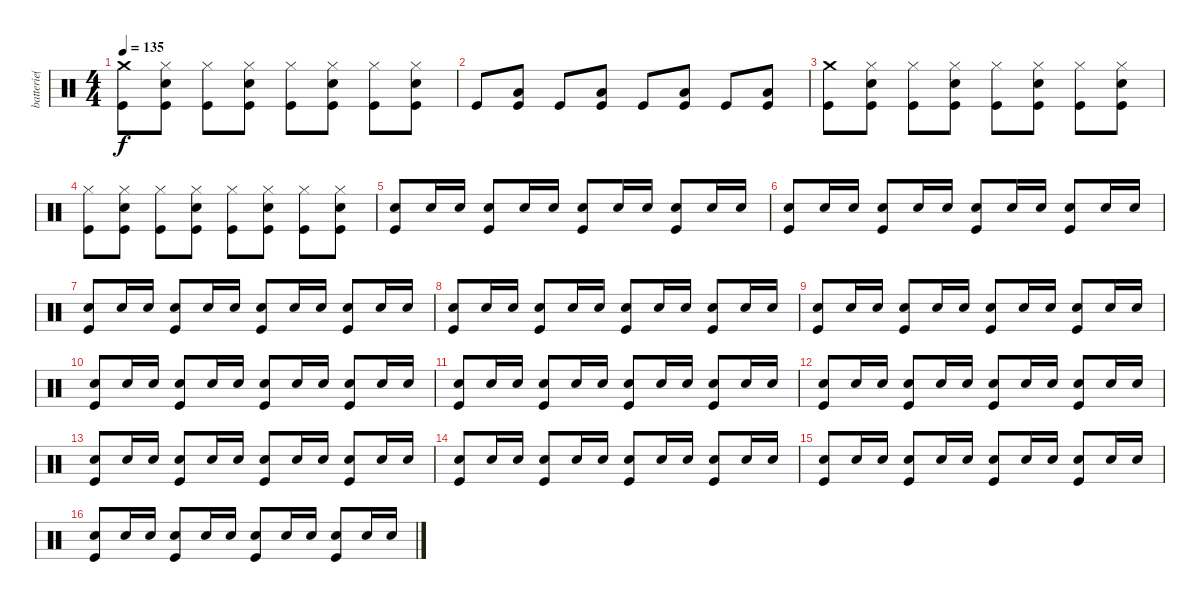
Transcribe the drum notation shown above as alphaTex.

\track ("batterie( Shane )" "batterie( ") {instrument percussion}
\staff {score}
\articulation defaults
\ts (4 4)
\tempo 135
\clef neutral
\ks c
("Crash medium (hit)" "Kick (hit)").8{dy f} ("Hi-Hat (closed)" "Snare (hit) 2" "Kick (hit)").8 ("Hi-Hat (closed)" "Kick (hit)").8 ("Hi-Hat (closed)" "Snare (hit) 2" "Kick (hit)").8 ("Hi-Hat (closed)" "Kick (hit)").8 ("Hi-Hat (closed)" "Snare (hit) 2" "Kick (hit)").8 ("Hi-Hat (closed)" "Kick (hit)").8 ("Hi-Hat (closed)" "Snare (hit) 2" "Kick (hit)").8 |
"Kick (hit)".8 ("Low Floor Tom (hit)" "Kick (hit)").8 "Kick (hit)".8 ("Low Floor Tom (hit)" "Kick (hit)").8 "Kick (hit)".8 ("Low Floor Tom (hit)" "Kick (hit)").8 "Kick (hit)".8 ("Low Floor Tom (hit)" "Kick (hit)").8 |
("Crash medium (hit)" "Kick (hit)").8 ("Hi-Hat (closed)" "Snare (hit) 2" "Kick (hit)").8 ("Hi-Hat (closed)" "Kick (hit)").8 ("Hi-Hat (closed)" "Snare (hit) 2" "Kick (hit)").8 ("Hi-Hat (closed)" "Kick (hit)").8 ("Hi-Hat (closed)" "Snare (hit) 2" "Kick (hit)").8 ("Hi-Hat (closed)" "Kick (hit)").8 ("Hi-Hat (closed)" "Snare (hit) 2" "Kick (hit)").8 |
("Hi-Hat (closed)" "Kick (hit)").8 ("Hi-Hat (closed)" "Snare (hit) 2" "Kick (hit)").8 ("Hi-Hat (closed)" "Kick (hit)").8 ("Hi-Hat (closed)" "Snare (hit) 2" "Kick (hit)").8 ("Hi-Hat (closed)" "Kick (hit)").8 ("Hi-Hat (closed)" "Snare (hit) 2" "Kick (hit)").8 ("Hi-Hat (closed)" "Kick (hit)").8 ("Hi-Hat (closed)" "Snare (hit) 2" "Kick (hit)").8 |
("Snare (hit) 2" "Kick (hit)").8 "Snare (hit) 2".16 "Snare (hit) 2".16 ("Snare (hit) 2" "Kick (hit)").8 "Snare (hit) 2".16 "Snare (hit) 2".16 ("Snare (hit) 2" "Kick (hit)").8 "Snare (hit) 2".16 "Snare (hit) 2".16 ("Snare (hit) 2" "Kick (hit)").8 "Snare (hit) 2".16 "Snare (hit) 2".16 |
("Snare (hit) 2" "Kick (hit)").8 "Snare (hit) 2".16 "Snare (hit) 2".16 ("Snare (hit) 2" "Kick (hit)").8 "Snare (hit) 2".16 "Snare (hit) 2".16 ("Snare (hit) 2" "Kick (hit)").8 "Snare (hit) 2".16 "Snare (hit) 2".16 ("Snare (hit) 2" "Kick (hit)").8 "Snare (hit) 2".16 "Snare (hit) 2".16 |
("Snare (hit) 2" "Kick (hit)").8 "Snare (hit) 2".16 "Snare (hit) 2".16 ("Snare (hit) 2" "Kick (hit)").8 "Snare (hit) 2".16 "Snare (hit) 2".16 ("Snare (hit) 2" "Kick (hit)").8 "Snare (hit) 2".16 "Snare (hit) 2".16 ("Snare (hit) 2" "Kick (hit)").8 "Snare (hit) 2".16 "Snare (hit) 2".16 |
("Snare (hit) 2" "Kick (hit)").8 "Snare (hit) 2".16 "Snare (hit) 2".16 ("Snare (hit) 2" "Kick (hit)").8 "Snare (hit) 2".16 "Snare (hit) 2".16 ("Snare (hit) 2" "Kick (hit)").8 "Snare (hit) 2".16 "Snare (hit) 2".16 ("Snare (hit) 2" "Kick (hit)").8 "Snare (hit) 2".16 "Snare (hit) 2".16 |
("Snare (hit) 2" "Kick (hit)").8 "Snare (hit) 2".16 "Snare (hit) 2".16 ("Snare (hit) 2" "Kick (hit)").8 "Snare (hit) 2".16 "Snare (hit) 2".16 ("Snare (hit) 2" "Kick (hit)").8 "Snare (hit) 2".16 "Snare (hit) 2".16 ("Snare (hit) 2" "Kick (hit)").8 "Snare (hit) 2".16 "Snare (hit) 2".16 |
("Snare (hit) 2" "Kick (hit)").8 "Snare (hit) 2".16 "Snare (hit) 2".16 ("Snare (hit) 2" "Kick (hit)").8 "Snare (hit) 2".16 "Snare (hit) 2".16 ("Snare (hit) 2" "Kick (hit)").8 "Snare (hit) 2".16 "Snare (hit) 2".16 ("Snare (hit) 2" "Kick (hit)").8 "Snare (hit) 2".16 "Snare (hit) 2".16 |
("Snare (hit) 2" "Kick (hit)").8 "Snare (hit) 2".16 "Snare (hit) 2".16 ("Snare (hit) 2" "Kick (hit)").8 "Snare (hit) 2".16 "Snare (hit) 2".16 ("Snare (hit) 2" "Kick (hit)").8 "Snare (hit) 2".16 "Snare (hit) 2".16 ("Snare (hit) 2" "Kick (hit)").8 "Snare (hit) 2".16 "Snare (hit) 2".16 |
("Snare (hit) 2" "Kick (hit)").8 "Snare (hit) 2".16 "Snare (hit) 2".16 ("Snare (hit) 2" "Kick (hit)").8 "Snare (hit) 2".16 "Snare (hit) 2".16 ("Snare (hit) 2" "Kick (hit)").8 "Snare (hit) 2".16 "Snare (hit) 2".16 ("Snare (hit) 2" "Kick (hit)").8 "Snare (hit) 2".16 "Snare (hit) 2".16 |
("Snare (hit) 2" "Kick (hit)").8 "Snare (hit) 2".16 "Snare (hit) 2".16 ("Snare (hit) 2" "Kick (hit)").8 "Snare (hit) 2".16 "Snare (hit) 2".16 ("Snare (hit) 2" "Kick (hit)").8 "Snare (hit) 2".16 "Snare (hit) 2".16 ("Snare (hit) 2" "Kick (hit)").8 "Snare (hit) 2".16 "Snare (hit) 2".16 |
("Snare (hit) 2" "Kick (hit)").8 "Snare (hit) 2".16 "Snare (hit) 2".16 ("Snare (hit) 2" "Kick (hit)").8 "Snare (hit) 2".16 "Snare (hit) 2".16 ("Snare (hit) 2" "Kick (hit)").8 "Snare (hit) 2".16 "Snare (hit) 2".16 ("Snare (hit) 2" "Kick (hit)").8 "Snare (hit) 2".16 "Snare (hit) 2".16 |
("Snare (hit) 2" "Kick (hit)").8 "Snare (hit) 2".16 "Snare (hit) 2".16 ("Snare (hit) 2" "Kick (hit)").8 "Snare (hit) 2".16 "Snare (hit) 2".16 ("Snare (hit) 2" "Kick (hit)").8 "Snare (hit) 2".16 "Snare (hit) 2".16 ("Snare (hit) 2" "Kick (hit)").8 "Snare (hit) 2".16 "Snare (hit) 2".16 |
("Snare (hit) 2" "Kick (hit)").8 "Snare (hit) 2".16 "Snare (hit) 2".16 ("Snare (hit) 2" "Kick (hit)").8 "Snare (hit) 2".16 "Snare (hit) 2".16 ("Snare (hit) 2" "Kick (hit)").8 "Snare (hit) 2".16 "Snare (hit) 2".16 ("Snare (hit) 2" "Kick (hit)").8 "Snare (hit) 2".16 "Snare (hit) 2".16
